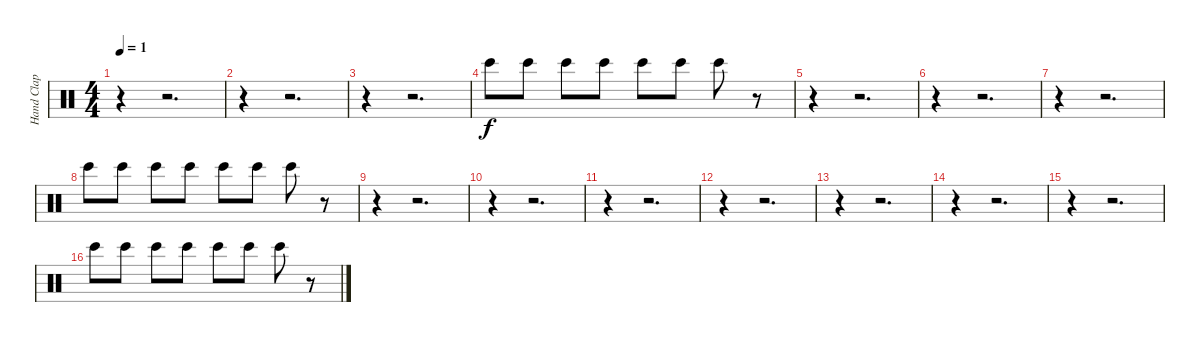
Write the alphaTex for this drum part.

\track ("Hand Clap" "Hand Clap") {instrument percussion}
\staff {score}
\articulation defaults
\ts (4 4)
\tempo 1
\clef neutral
\ks c
r.4{dy f} r.2{d} |
r.4 r.2{d} |
r.4 r.2{d} |
"Bongo High (hit)".8 "Bongo High (hit)".8 "Bongo High (hit)".8 "Bongo High (hit)".8 "Bongo High (hit)".8 "Bongo High (hit)".8 "Bongo High (hit)".8 r.8 |
r.4 r.2{d} |
r.4 r.2{d} |
r.4 r.2{d} |
"Bongo High (hit)".8 "Bongo High (hit)".8 "Bongo High (hit)".8 "Bongo High (hit)".8 "Bongo High (hit)".8 "Bongo High (hit)".8 "Bongo High (hit)".8 r.8 |
r.4 r.2{d} |
r.4 r.2{d} |
r.4 r.2{d} |
r.4 r.2{d} |
r.4 r.2{d} |
r.4 r.2{d} |
r.4 r.2{d} |
"Bongo High (hit)".8 "Bongo High (hit)".8 "Bongo High (hit)".8 "Bongo High (hit)".8 "Bongo High (hit)".8 "Bongo High (hit)".8 "Bongo High (hit)".8 r.8
